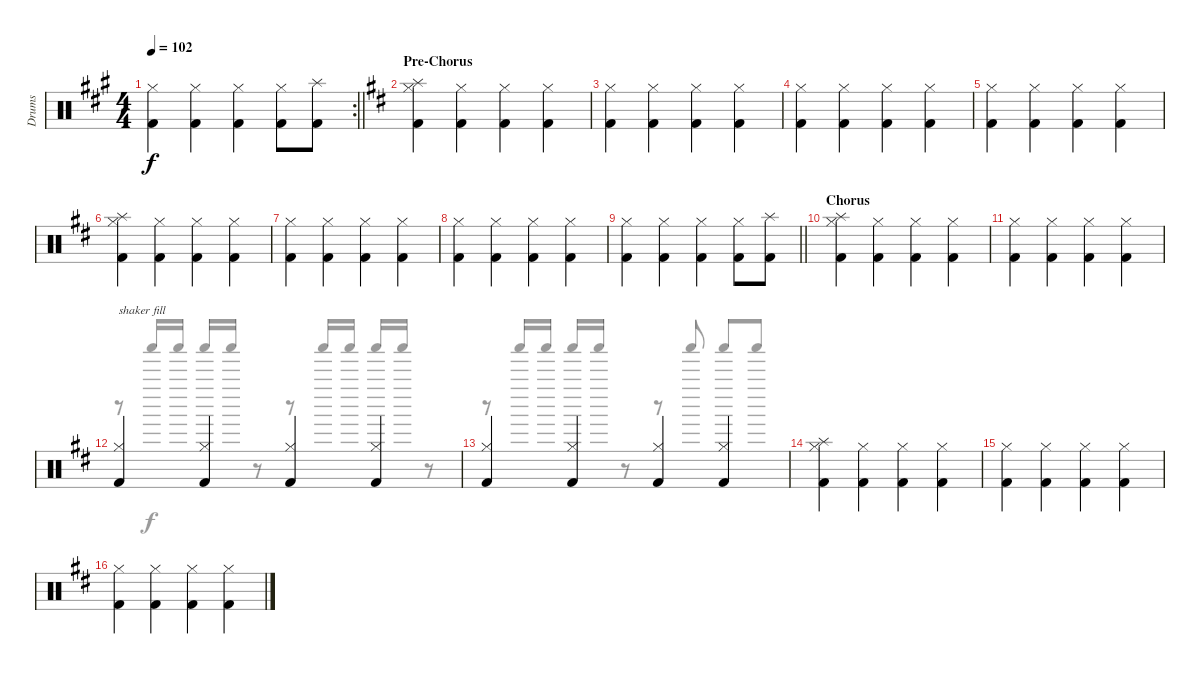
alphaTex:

\track ("Drums" "Drums") {instrument percussion}
\staff {score}
\articulation defaults
\voice
\rc 2
\ts (4 4)
\tempo 102
\clef neutral
\barLineRight lightlight
\ks a
("Hi-Hat (closed)" "Kick (hit) 2").4{dy f} ("Hi-Hat (closed)" "Kick (hit) 2").4 ("Hi-Hat (closed)" "Kick (hit) 2").4 ("Hi-Hat (closed)" "Kick (hit) 2").8 ("Splash (hit)" "Kick (hit) 2").8 |
\section ("" "Pre-Chorus")
\ks d
("Hi-Hat (closed)" "Splash (hit)" "Kick (hit) 2").4 ("Hi-Hat (closed)" "Kick (hit) 2").4 ("Hi-Hat (closed)" "Kick (hit) 2").4 ("Hi-Hat (closed)" "Kick (hit) 2").4 |
("Hi-Hat (closed)" "Kick (hit) 2").4 ("Hi-Hat (closed)" "Kick (hit) 2").4 ("Hi-Hat (closed)" "Kick (hit) 2").4 ("Hi-Hat (closed)" "Kick (hit) 2").4 |
("Hi-Hat (closed)" "Kick (hit) 2").4 ("Hi-Hat (closed)" "Kick (hit) 2").4 ("Hi-Hat (closed)" "Kick (hit) 2").4 ("Hi-Hat (closed)" "Kick (hit) 2").4 |
("Hi-Hat (closed)" "Kick (hit) 2").4 ("Hi-Hat (closed)" "Kick (hit) 2").4 ("Hi-Hat (closed)" "Kick (hit) 2").4 ("Hi-Hat (closed)" "Kick (hit) 2").4 |
("Hi-Hat (closed)" "Splash (hit)" "Kick (hit) 2").4 ("Hi-Hat (closed)" "Kick (hit) 2").4 ("Hi-Hat (closed)" "Kick (hit) 2").4 ("Hi-Hat (closed)" "Kick (hit) 2").4 |
("Hi-Hat (closed)" "Kick (hit) 2").4 ("Hi-Hat (closed)" "Kick (hit) 2").4 ("Hi-Hat (closed)" "Kick (hit) 2").4 ("Hi-Hat (closed)" "Kick (hit) 2").4 |
("Hi-Hat (closed)" "Kick (hit) 2").4 ("Hi-Hat (closed)" "Kick (hit) 2").4 ("Hi-Hat (closed)" "Kick (hit) 2").4 ("Hi-Hat (closed)" "Kick (hit) 2").4 |
\barLineRight lightlight
("Hi-Hat (closed)" "Kick (hit) 2").4 ("Hi-Hat (closed)" "Kick (hit) 2").4 ("Hi-Hat (closed)" "Kick (hit) 2").4 ("Hi-Hat (closed)" "Kick (hit) 2").8 ("Splash (hit)" "Kick (hit) 2").8 |
\section ("" "Chorus")
("Hi-Hat (closed)" "Splash (hit)" "Kick (hit) 2").4 ("Hi-Hat (closed)" "Kick (hit) 2").4 ("Hi-Hat (closed)" "Kick (hit) 2").4 ("Hi-Hat (closed)" "Kick (hit) 2").4 |
("Hi-Hat (closed)" "Kick (hit) 2").4 ("Hi-Hat (closed)" "Kick (hit) 2").4 ("Hi-Hat (closed)" "Kick (hit) 2").4 ("Hi-Hat (closed)" "Kick (hit) 2").4 |
("Hi-Hat (closed)" "Kick (hit) 2").4{txt "shaker fill"} ("Hi-Hat (closed)" "Kick (hit) 2").4 ("Hi-Hat (closed)" "Kick (hit) 2").4 ("Hi-Hat (closed)" "Kick (hit) 2").4 |
("Hi-Hat (closed)" "Kick (hit) 2").4 ("Hi-Hat (closed)" "Kick (hit) 2").4 ("Hi-Hat (closed)" "Kick (hit) 2").4 ("Hi-Hat (closed)" "Kick (hit) 2").4 |
("Hi-Hat (closed)" "Splash (hit)" "Kick (hit) 2").4 ("Hi-Hat (closed)" "Kick (hit) 2").4 ("Hi-Hat (closed)" "Kick (hit) 2").4 ("Hi-Hat (closed)" "Kick (hit) 2").4 |
("Hi-Hat (closed)" "Kick (hit) 2").4 ("Hi-Hat (closed)" "Kick (hit) 2").4 ("Hi-Hat (closed)" "Kick (hit) 2").4 ("Hi-Hat (closed)" "Kick (hit) 2").4 |
("Hi-Hat (closed)" "Kick (hit) 2").4 ("Hi-Hat (closed)" "Kick (hit) 2").4 ("Hi-Hat (closed)" "Kick (hit) 2").4 ("Hi-Hat (closed)" "Kick (hit) 2").4
\voice
\clef neutral
\ottava regular
\simile none
\barLineRight lightlight
\ks a
|
\ks d
|
|
|
|
|
|
|
\barLineRight lightlight
|
|
|
r.8 "Shaker (hit)".16{beam Up} "Shaker (hit)".16{beam Up} "Shaker (hit)".16{beam Up} "Shaker (hit)".16{beam Up} r.8 r.8 "Shaker (hit)".16{beam Up} "Shaker (hit)".16{beam Up} "Shaker (hit)".16{beam Up} "Shaker (hit)".16{beam Up} r.8 |
r.8 "Shaker (hit)".16{beam Up} "Shaker (hit)".16{beam Up} "Shaker (hit)".16{beam Up} "Shaker (hit)".16{beam Up} r.8 r.8 "Shaker (hit)".8{beam Up} "Shaker (hit)".8{beam Up} "Shaker (hit)".8{beam Up} |
|
|
